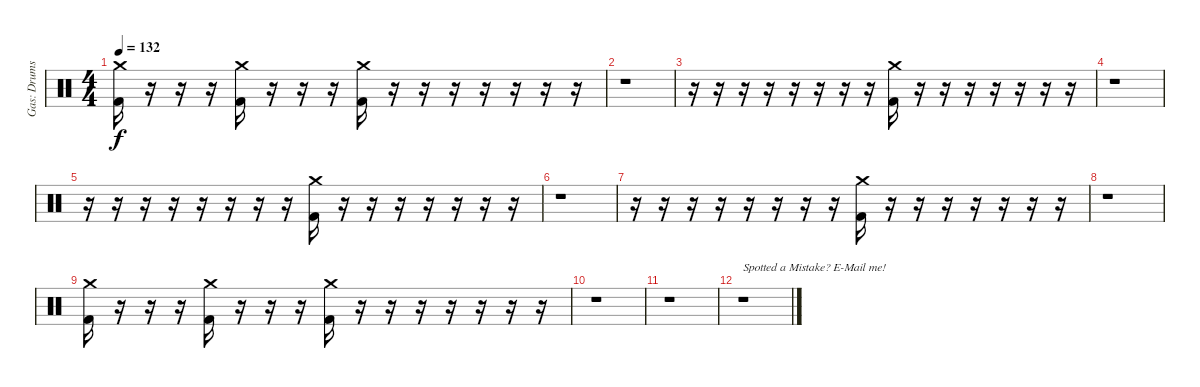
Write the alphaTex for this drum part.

\track ("Gas: Drums" "Gas: Drums") {instrument percussion}
\staff {score}
\articulation defaults
\ts (4 4)
\tempo 132
\clef neutral
\ks c
("Crash medium (hit)" "Kick (hit) 2").16{dy f} r.16 r.16 r.16 ("Crash medium (hit)" "Kick (hit) 2").16 r.16 r.16 r.16 ("Crash medium (hit)" "Kick (hit) 2").16 r.16 r.16 r.16 r.16 r.16 r.16 r.16 |
r.1 |
r.16 r.16 r.16 r.16 r.16 r.16 r.16 r.16 ("Crash medium (hit)" "Kick (hit) 2").16 r.16 r.16 r.16 r.16 r.16 r.16 r.16 |
r.1 |
r.16 r.16 r.16 r.16 r.16 r.16 r.16 r.16 ("Crash medium (hit)" "Kick (hit) 2").16 r.16 r.16 r.16 r.16 r.16 r.16 r.16 |
r.1 |
r.16 r.16 r.16 r.16 r.16 r.16 r.16 r.16 ("Crash medium (hit)" "Kick (hit) 2").16 r.16 r.16 r.16 r.16 r.16 r.16 r.16 |
r.1 |
("Crash medium (hit)" "Kick (hit) 2").16 r.16 r.16 r.16 ("Crash medium (hit)" "Kick (hit) 2").16 r.16 r.16 r.16 ("Crash medium (hit)" "Kick (hit) 2").16 r.16 r.16 r.16 r.16 r.16 r.16 r.16 |
r.1 |
r.1 |
r.1{txt "Spotted a Mistake? E-Mail me!"}
